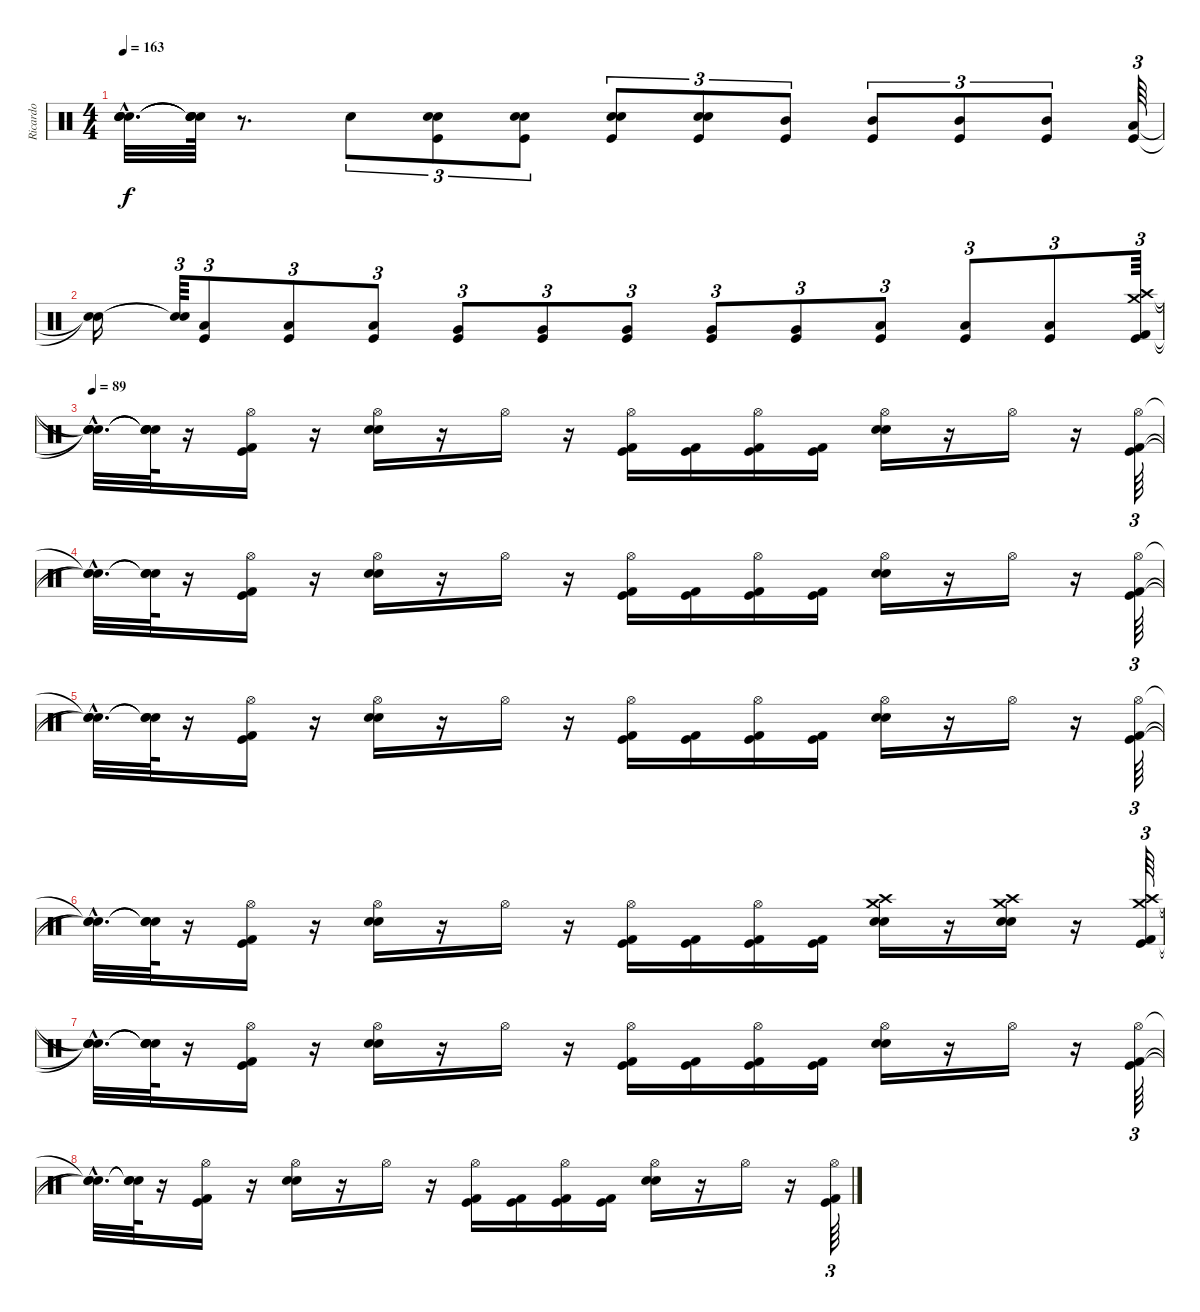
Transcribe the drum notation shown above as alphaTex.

\track ("Ricardo" "Ricardo") {instrument percussion}
\staff {score}
\articulation defaults
\ts (4 4)
\tempo 163
\clef neutral
\ks c
("Snare (hit)"{hac t} "Snare (hit)"{hac t} "Snare (hit)"{hac t} "Snare (hit)"{hac t}).32{d dy f} ("Snare (hit)"{t} "Snare (hit)"{t} "Snare (hit)"{t} "Snare (hit)"{t}).64 r.8{d} "Snare (hit)".8{tu (3 2)} ("Kick (hit)" "Electric Snare (hit)" "Snare (hit) 2").8{tu (3 2)} ("Kick (hit)" "Electric Snare (hit)" "Snare (hit) 2").8{tu (3 2)} ("Kick (hit)" "Electric Snare (hit)" "Snare (hit) 2").8{tu (3 2)} ("Kick (hit)" "Electric Snare (hit)" "Snare (hit) 2").8{tu (3 2)} ("Kick (hit)" "Mid Tom (hit)").8{tu (3 2)} ("Kick (hit)" "Mid Tom (hit)").8{tu (3 2)} ("Kick (hit)" "Mid Tom (hit)").8{tu (3 2)} ("Kick (hit)" "Mid Tom (hit)").8{tu (3 2)} ("Kick (hit)" "Low Tom (hit)").64{tu (3 2)} |
("Snare (hit)"{t} "Snare (hit)"{t}).16 ("Snare (hit)"{t} "Snare (hit)"{t}).64{tu (3 2)} ("Kick (hit)" "Low Tom (hit)").8{tu (3 2)} ("Kick (hit)" "Low Tom (hit)").8{tu (3 2)} ("Kick (hit)" "Low Tom (hit)").8{tu (3 2)} ("Kick (hit)" "Very Low Tom (hit)").8{tu (3 2)} ("Kick (hit)" "Very Low Tom (hit)").8{tu (3 2)} ("Kick (hit)" "Very Low Tom (hit)").8{tu (3 2)} ("Kick (hit)" "Very Low Tom (hit)").8{tu (3 2)} ("Kick (hit)" "Very Low Tom (hit)").8{tu (3 2)} ("Low Floor Tom (hit)" "Kick (hit)").8{tu (3 2)} ("Low Floor Tom (hit)" "Kick (hit)").8{tu (3 2)} ("Low Floor Tom (hit)" "Kick (hit)").8{tu (3 2)} ("Crash medium (hit)" "Crash high (hit)" "Kick (hit) 2" "Kick (hit)").64{tu (3 2)} |
\tempo 89
("Snare (hit)"{hac t} "Snare (hit)"{hac t} "Snare (hit)"{hac t} "Snare (hit)"{hac t}).32{d} ("Snare (hit)"{t} "Snare (hit)"{t} "Snare (hit)"{t} "Snare (hit)"{t}).64 r.16 ("Hi-Hat (open)" "Kick (hit) 2" "Kick (hit)").16 r.16 ("Hi-Hat (open)" "Electric Snare (hit)" "Snare (hit) 2").16 r.16 "Hi-Hat (open)".16 r.16 ("Hi-Hat (open)" "Kick (hit) 2" "Kick (hit)").16 ("Kick (hit) 2" "Kick (hit)").16 ("Hi-Hat (open)" "Kick (hit) 2" "Kick (hit)").16 ("Kick (hit) 2" "Kick (hit)").16 ("Hi-Hat (open)" "Electric Snare (hit)" "Snare (hit) 2").16 r.16 "Hi-Hat (open)".16 r.16 ("Hi-Hat (open)" "Kick (hit) 2" "Kick (hit)").64{tu (3 2)} |
("Snare (hit)"{hac t} "Snare (hit)"{hac t} "Snare (hit)"{hac t}).32{d} ("Snare (hit)"{t} "Snare (hit)"{t} "Snare (hit)"{t}).64 r.16 ("Hi-Hat (open)" "Kick (hit) 2" "Kick (hit)").16 r.16 ("Hi-Hat (open)" "Electric Snare (hit)" "Snare (hit) 2").16 r.16 "Hi-Hat (open)".16 r.16 ("Hi-Hat (open)" "Kick (hit) 2" "Kick (hit)").16 ("Kick (hit) 2" "Kick (hit)").16 ("Hi-Hat (open)" "Kick (hit) 2" "Kick (hit)").16 ("Kick (hit) 2" "Kick (hit)").16 ("Hi-Hat (open)" "Electric Snare (hit)" "Snare (hit) 2").16 r.16 "Hi-Hat (open)".16 r.16 ("Hi-Hat (open)" "Kick (hit) 2" "Kick (hit)").64{tu (3 2)} |
("Snare (hit)"{hac t} "Snare (hit)"{hac t} "Snare (hit)"{hac t}).32{d} ("Snare (hit)"{t} "Snare (hit)"{t} "Snare (hit)"{t}).64 r.16 ("Hi-Hat (open)" "Kick (hit) 2" "Kick (hit)").16 r.16 ("Hi-Hat (open)" "Electric Snare (hit)" "Snare (hit) 2").16 r.16 "Hi-Hat (open)".16 r.16 ("Hi-Hat (open)" "Kick (hit) 2" "Kick (hit)").16 ("Kick (hit) 2" "Kick (hit)").16 ("Hi-Hat (open)" "Kick (hit) 2" "Kick (hit)").16 ("Kick (hit) 2" "Kick (hit)").16 ("Hi-Hat (open)" "Electric Snare (hit)" "Snare (hit) 2").16 r.16 "Hi-Hat (open)".16 r.16 ("Hi-Hat (open)" "Kick (hit) 2" "Kick (hit)").64{tu (3 2)} |
("Snare (hit)"{hac t} "Snare (hit)"{hac t} "Snare (hit)"{hac t}).32{d} ("Snare (hit)"{t} "Snare (hit)"{t} "Snare (hit)"{t}).64 r.16 ("Hi-Hat (open)" "Kick (hit) 2" "Kick (hit)").16 r.16 ("Hi-Hat (open)" "Electric Snare (hit)" "Snare (hit) 2").16 r.16 "Hi-Hat (open)".16 r.16 ("Hi-Hat (open)" "Kick (hit) 2" "Kick (hit)").16 ("Kick (hit) 2" "Kick (hit)").16 ("Hi-Hat (open)" "Kick (hit) 2" "Kick (hit)").16 ("Kick (hit) 2" "Kick (hit)").16 ("Crash medium (hit)" "Crash high (hit)" "Electric Snare (hit)" "Snare (hit) 2").16 r.16 ("Crash medium (hit)" "Crash high (hit)" "Electric Snare (hit)" "Snare (hit) 2").16 r.16 ("Crash medium (hit)" "Crash high (hit)" "Kick (hit) 2" "Kick (hit)").64{tu (3 2)} |
("Snare (hit)"{hac t} "Snare (hit)"{hac t} "Snare (hit)"{hac t} "Snare (hit)"{hac t}).32{d} ("Snare (hit)"{t} "Snare (hit)"{t} "Snare (hit)"{t} "Snare (hit)"{t}).64 r.16 ("Hi-Hat (open)" "Kick (hit) 2" "Kick (hit)").16 r.16 ("Hi-Hat (open)" "Electric Snare (hit)" "Snare (hit) 2").16 r.16 "Hi-Hat (open)".16 r.16 ("Hi-Hat (open)" "Kick (hit) 2" "Kick (hit)").16 ("Kick (hit) 2" "Kick (hit)").16 ("Hi-Hat (open)" "Kick (hit) 2" "Kick (hit)").16 ("Kick (hit) 2" "Kick (hit)").16 ("Hi-Hat (open)" "Electric Snare (hit)" "Snare (hit) 2").16 r.16 "Hi-Hat (open)".16 r.16 ("Hi-Hat (open)" "Kick (hit) 2" "Kick (hit)").64{tu (3 2)} |
("Snare (hit)"{hac t} "Snare (hit)"{hac t} "Snare (hit)"{hac t}).32{d} ("Snare (hit)"{t} "Snare (hit)"{t} "Snare (hit)"{t}).64 r.16 ("Hi-Hat (open)" "Kick (hit) 2" "Kick (hit)").16 r.16 ("Hi-Hat (open)" "Electric Snare (hit)" "Snare (hit) 2").16 r.16 "Hi-Hat (open)".16 r.16 ("Hi-Hat (open)" "Kick (hit) 2" "Kick (hit)").16 ("Kick (hit) 2" "Kick (hit)").16 ("Hi-Hat (open)" "Kick (hit) 2" "Kick (hit)").16 ("Kick (hit) 2" "Kick (hit)").16 ("Hi-Hat (open)" "Electric Snare (hit)" "Snare (hit) 2").16 r.16 "Hi-Hat (open)".16 r.16 ("Hi-Hat (open)" "Kick (hit) 2" "Kick (hit)").64{tu (3 2)}
